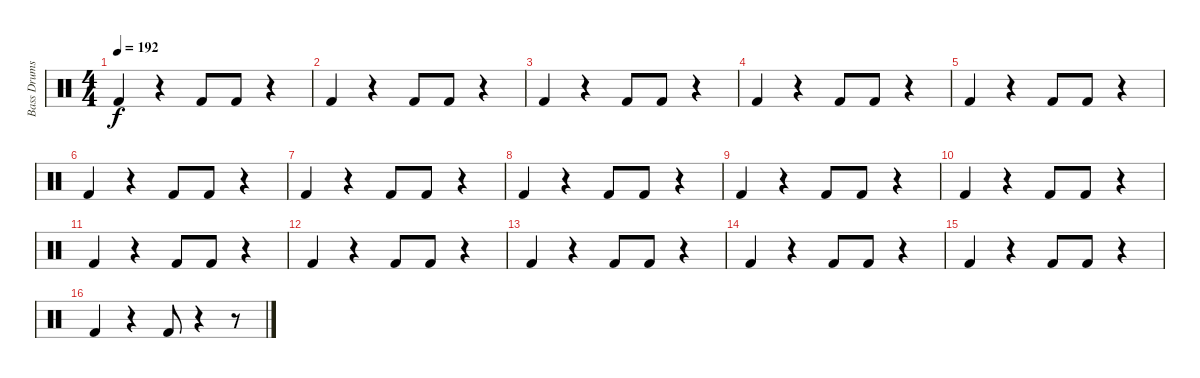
\track ("Bass Drums" "Bass Drums") {instrument percussion}
\staff {score}
\articulation defaults
\ts (4 4)
\tempo 192
\clef neutral
\ks c "Kick (hit) 2".4{dy f}
r.4 "Kick (hit) 2".8 "Kick (hit) 2".8 r.4 |
"Kick (hit) 2".4 r.4 "Kick (hit) 2".8 "Kick (hit) 2".8 r.4 |
"Kick (hit) 2".4 r.4 "Kick (hit) 2".8 "Kick (hit) 2".8 r.4 |
"Kick (hit) 2".4 r.4 "Kick (hit) 2".8 "Kick (hit) 2".8 r.4 |
"Kick (hit) 2".4 r.4 "Kick (hit) 2".8 "Kick (hit) 2".8 r.4 |
"Kick (hit) 2".4 r.4 "Kick (hit) 2".8 "Kick (hit) 2".8 r.4 |
"Kick (hit) 2".4 r.4 "Kick (hit) 2".8 "Kick (hit) 2".8 r.4 |
"Kick (hit) 2".4 r.4 "Kick (hit) 2".8 "Kick (hit) 2".8 r.4 |
"Kick (hit) 2".4 r.4 "Kick (hit) 2".8 "Kick (hit) 2".8 r.4 |
"Kick (hit) 2".4 r.4 "Kick (hit) 2".8 "Kick (hit) 2".8 r.4 |
"Kick (hit) 2".4 r.4 "Kick (hit) 2".8 "Kick (hit) 2".8 r.4 |
"Kick (hit) 2".4 r.4 "Kick (hit) 2".8 "Kick (hit) 2".8 r.4 |
"Kick (hit) 2".4 r.4 "Kick (hit) 2".8 "Kick (hit) 2".8 r.4 |
"Kick (hit) 2".4 r.4 "Kick (hit) 2".8 "Kick (hit) 2".8 r.4 |
"Kick (hit) 2".4 r.4 "Kick (hit) 2".8 "Kick (hit) 2".8 r.4 |
"Kick (hit) 2".4 r.4 "Kick (hit) 2".8 r.4 r.8
